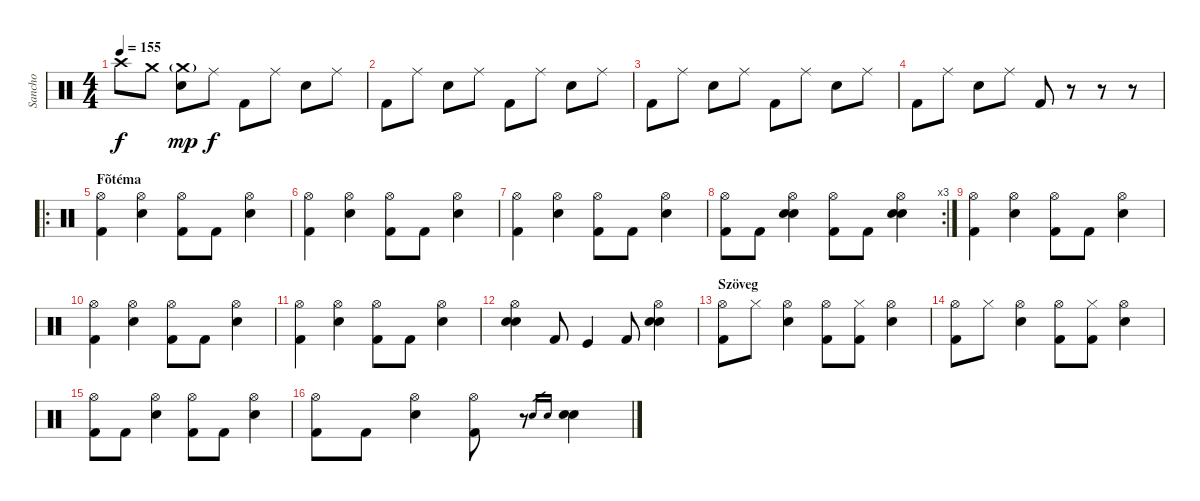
\track ("Sancho" "Sancho") {instrument percussion}
\staff {score}
\articulation defaults
\ts (4 4)
\tempo 155
\clef neutral
\ks c "Crash high (hit)".8{dy f} "Crash medium (hit)".8
("Crash medium (hit)"{g} "Electric Snare (hit)").8{dy mp} "Ride (middle)".8{dy f} "Kick (hit) 2".8 "Ride (middle)".8 "Electric Snare (hit)".8 "Ride (middle)".8 |
"Kick (hit) 2".8 "Ride (middle)".8 "Electric Snare (hit)".8 "Ride (middle)".8 "Kick (hit) 2".8 "Ride (middle)".8 "Electric Snare (hit)".8 "Ride (middle)".8 |
"Kick (hit) 2".8 "Ride (middle)".8 "Electric Snare (hit)".8 "Ride (middle)".8 "Kick (hit) 2".8 "Ride (middle)".8 "Electric Snare (hit)".8 "Ride (middle)".8 |
"Kick (hit) 2".8 "Ride (middle)".8 "Electric Snare (hit)".8 "Ride (middle)".8 "Kick (hit) 2".8 r.8 r.8 r.8 |
\ro
\section ("" "Fõtéma")
("Hi-Hat (open)" "Kick (hit) 2").4 ("Hi-Hat (open)" "Electric Snare (hit)").4 ("Hi-Hat (open)" "Kick (hit) 2").8 "Kick (hit) 2".8 ("Hi-Hat (open)" "Electric Snare (hit)").4 |
("Hi-Hat (open)" "Kick (hit) 2").4 ("Hi-Hat (open)" "Electric Snare (hit)").4 ("Hi-Hat (open)" "Kick (hit) 2").8 "Kick (hit) 2".8 ("Hi-Hat (open)" "Electric Snare (hit)").4 |
("Hi-Hat (open)" "Kick (hit) 2").4 ("Hi-Hat (open)" "Electric Snare (hit)").4 ("Hi-Hat (open)" "Kick (hit) 2").8 "Kick (hit) 2".8 ("Hi-Hat (open)" "Electric Snare (hit)").4 |
\rc 3
("Hi-Hat (open)" "Kick (hit) 2").8 "Kick (hit) 2".8 ("Hi-Hat (open)" "Electric Snare (hit)" "Electric Snare (hit)").4 ("Hi-Hat (open)" "Kick (hit) 2").8 "Kick (hit) 2".8 ("Hi-Hat (open)" "Electric Snare (hit)" "Electric Snare (hit)").4 |
("Hi-Hat (open)" "Kick (hit) 2").4 ("Hi-Hat (open)" "Electric Snare (hit)").4 ("Hi-Hat (open)" "Kick (hit) 2").8 "Kick (hit) 2".8 ("Hi-Hat (open)" "Electric Snare (hit)").4 |
("Hi-Hat (open)" "Kick (hit) 2").4 ("Hi-Hat (open)" "Electric Snare (hit)").4 ("Hi-Hat (open)" "Kick (hit) 2").8 "Kick (hit) 2".8 ("Hi-Hat (open)" "Electric Snare (hit)").4 |
("Hi-Hat (open)" "Kick (hit) 2").4 ("Hi-Hat (open)" "Electric Snare (hit)").4 ("Hi-Hat (open)" "Kick (hit) 2").8 "Kick (hit) 2".8 ("Hi-Hat (open)" "Electric Snare (hit)").4 |
("Hi-Hat (open)" "Electric Snare (hit)" "Electric Snare (hit)").4 "Kick (hit) 2".8 "Kick (hit)".4 "Kick (hit) 2".8 ("Hi-Hat (open)" "Electric Snare (hit)" "Electric Snare (hit)").4 |
\section ("" "Szöveg")
("Hi-Hat (open)" "Kick (hit) 2").8 "Hi-Hat (closed)".8 ("Hi-Hat (open)" "Electric Snare (hit)").4 ("Hi-Hat (open)" "Kick (hit) 2").8 ("Hi-Hat (closed)" "Kick (hit) 2").8 ("Hi-Hat (open)" "Electric Snare (hit)").4 |
("Hi-Hat (open)" "Kick (hit) 2").8 "Hi-Hat (closed)".8 ("Hi-Hat (open)" "Electric Snare (hit)").4 ("Hi-Hat (open)" "Kick (hit) 2").8 ("Hi-Hat (closed)" "Kick (hit) 2").8 ("Hi-Hat (open)" "Electric Snare (hit)").4 |
("Hi-Hat (open)" "Kick (hit) 2").8 "Kick (hit) 2".8 ("Hi-Hat (open)" "Electric Snare (hit)").4 ("Hi-Hat (open)" "Kick (hit) 2").8 "Kick (hit) 2".8 ("Hi-Hat (open)" "Electric Snare (hit)").4 |
("Hi-Hat (open)" "Kick (hit) 2").8 "Kick (hit) 2".8 ("Hi-Hat (open)" "Electric Snare (hit)").4 ("Hi-Hat (open)" "Kick (hit) 2").8 r.8 "Snare (hit) 2".16{gr} "Snare (hit) 2".16{gr} ("Electric Snare (hit)" "Electric Snare (hit)").4
